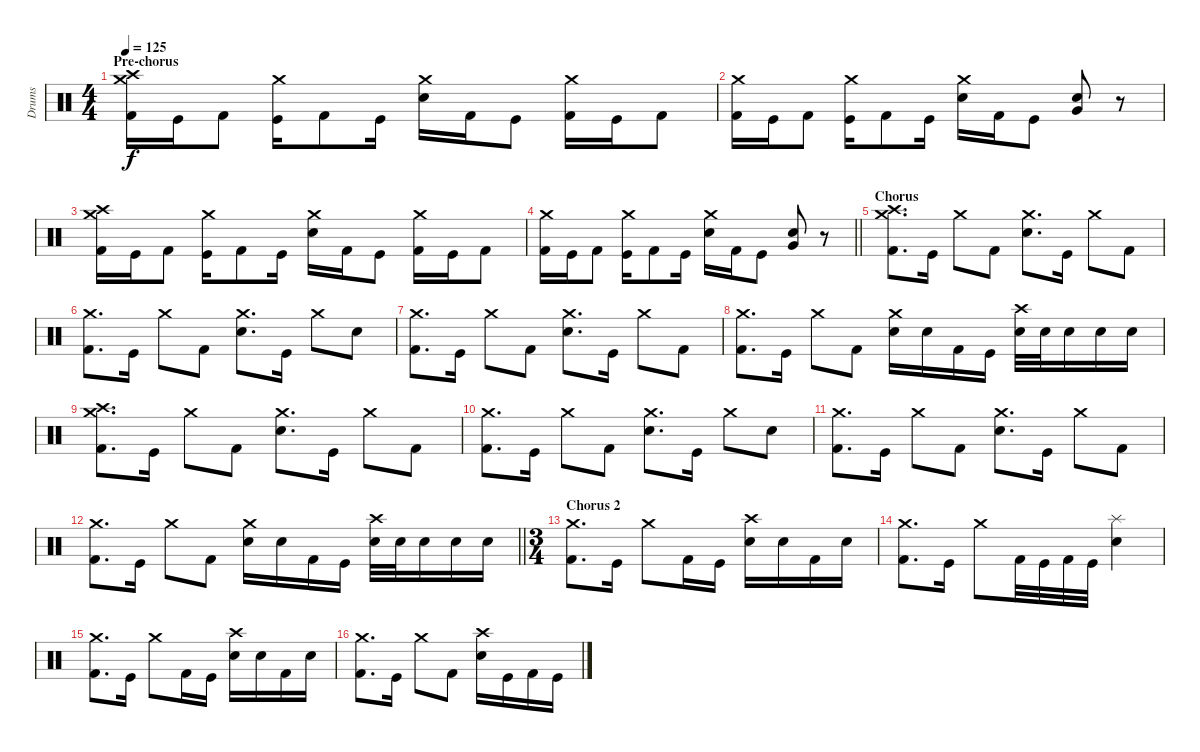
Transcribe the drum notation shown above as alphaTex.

\track ("Drums" "Drums") {instrument percussion}
\staff {score}
\articulation defaults
\ts (4 4)
\section ("" "Pre-chorus")
\tempo 125
\clef neutral
\ks c
("Crash high (hit)" "Crash medium (hit)" "Kick (hit) 2").16{dy f} "Kick (hit)".16 "Kick (hit) 2".8 ("Crash medium (hit)" "Kick (hit)").16 "Kick (hit) 2".8 "Kick (hit)".16 ("Crash medium (hit)" "Electric Snare (hit)").16 "Kick (hit) 2".16 "Kick (hit)".8 ("Crash medium (hit)" "Kick (hit) 2").16 "Kick (hit)".16 "Kick (hit) 2".8 |
("Crash medium (hit)" "Kick (hit) 2").16 "Kick (hit)".16 "Kick (hit) 2".8 ("Crash medium (hit)" "Kick (hit)").16 "Kick (hit) 2".8 "Kick (hit)".16 ("Crash medium (hit)" "Electric Snare (hit)").16 "Kick (hit) 2".16 "Kick (hit)".8 ("Electric Snare (hit)" "Very Low Tom (hit)").8 r.8 |
("Crash high (hit)" "Crash medium (hit)" "Kick (hit) 2").16 "Kick (hit)".16 "Kick (hit) 2".8 ("Crash medium (hit)" "Kick (hit)").16 "Kick (hit) 2".8 "Kick (hit)".16 ("Crash medium (hit)" "Electric Snare (hit)").16 "Kick (hit) 2".16 "Kick (hit)".8 ("Crash medium (hit)" "Kick (hit) 2").16 "Kick (hit)".16 "Kick (hit) 2".8 |
\barLineRight lightlight
("Crash medium (hit)" "Kick (hit) 2").16 "Kick (hit)".16 "Kick (hit) 2".8 ("Crash medium (hit)" "Kick (hit)").16 "Kick (hit) 2".8 "Kick (hit)".16 ("Crash medium (hit)" "Electric Snare (hit)").16 "Kick (hit) 2".16 "Kick (hit)".8 ("Electric Snare (hit)" "Very Low Tom (hit)").8 r.8 |
\section ("" "Chorus")
("Crash medium (hit)" "Crash high (hit)" "Kick (hit) 2").8{d} "Kick (hit)".16 "Crash medium (hit)".8 "Kick (hit) 2".8 ("Crash medium (hit)" "Electric Snare (hit)").8{d} "Kick (hit)".16 "Crash medium (hit)".8 "Kick (hit) 2".8 |
("Crash medium (hit)" "Kick (hit) 2").8{d} "Kick (hit)".16 "Crash medium (hit)".8 "Kick (hit) 2".8 ("Crash medium (hit)" "Electric Snare (hit)").8{d} "Kick (hit)".16 "Crash medium (hit)".8 "Electric Snare (hit)".8 |
("Crash medium (hit)" "Kick (hit) 2").8{d} "Kick (hit)".16 "Crash medium (hit)".8 "Kick (hit) 2".8 ("Crash medium (hit)" "Electric Snare (hit)").8{d} "Kick (hit)".16 "Crash medium (hit)".8 "Kick (hit) 2".8 |
("Crash medium (hit)" "Kick (hit) 2").8{d} "Kick (hit)".16 "Crash medium (hit)".8 "Kick (hit) 2".8 ("Crash medium (hit)" "Electric Snare (hit)").16 "Electric Snare (hit)".16 "Kick (hit) 2".16 "Kick (hit)".16 ("Crash high (hit)" "Electric Snare (hit)").32 "Electric Snare (hit)".32 "Electric Snare (hit)".16 "Electric Snare (hit)".16 "Electric Snare (hit)".16 |
("Crash medium (hit)" "Crash high (hit)" "Kick (hit) 2").8{d} "Kick (hit)".16 "Crash medium (hit)".8 "Kick (hit) 2".8 ("Crash medium (hit)" "Electric Snare (hit)").8{d} "Kick (hit)".16 "Crash medium (hit)".8 "Kick (hit) 2".8 |
("Crash medium (hit)" "Kick (hit) 2").8{d} "Kick (hit)".16 "Crash medium (hit)".8 "Kick (hit) 2".8 ("Crash medium (hit)" "Electric Snare (hit)").8{d} "Kick (hit)".16 "Crash medium (hit)".8 "Electric Snare (hit)".8 |
("Crash medium (hit)" "Kick (hit) 2").8{d} "Kick (hit)".16 "Crash medium (hit)".8 "Kick (hit) 2".8 ("Crash medium (hit)" "Electric Snare (hit)").8{d} "Kick (hit)".16 "Crash medium (hit)".8 "Kick (hit) 2".8 |
\barLineRight lightlight
("Crash medium (hit)" "Kick (hit) 2").8{d} "Kick (hit)".16 "Crash medium (hit)".8 "Kick (hit) 2".8 ("Crash medium (hit)" "Electric Snare (hit)").16 "Electric Snare (hit)".16 "Kick (hit) 2".16 "Kick (hit)".16 ("Crash high (hit)" "Electric Snare (hit)").32 "Electric Snare (hit)".32 "Electric Snare (hit)".16 "Electric Snare (hit)".16 "Electric Snare (hit)".16 |
\ts (3 4)
\section ("" "Chorus 2")
("Crash medium (hit)" "Kick (hit) 2").8{d} "Kick (hit)".16 "Crash medium (hit)".8 "Kick (hit) 2".16 "Kick (hit)".16 ("Crash high (hit)" "Electric Snare (hit)").16 "Electric Snare (hit)".16 "Kick (hit) 2".16 "Electric Snare (hit)".16 |
("Crash medium (hit)" "Kick (hit) 2").8{d} "Kick (hit)".16 "Crash medium (hit)".8 "Kick (hit) 2".32 "Kick (hit)".32 "Kick (hit) 2".32 "Kick (hit)".32 ("Splash (hit)" "Electric Snare (hit)").4 |
("Crash medium (hit)" "Kick (hit) 2").8{d} "Kick (hit)".16 "Crash medium (hit)".8 "Kick (hit) 2".16 "Kick (hit)".16 ("Crash high (hit)" "Electric Snare (hit)").16 "Electric Snare (hit)".16 "Kick (hit) 2".16 "Electric Snare (hit)".16 |
("Crash medium (hit)" "Kick (hit) 2").8{d} "Kick (hit)".16 "Crash medium (hit)".8 "Kick (hit) 2".8 ("Crash high (hit)" "Electric Snare (hit)").16 "Kick (hit)".16 "Kick (hit) 2".16 "Kick (hit)".16
